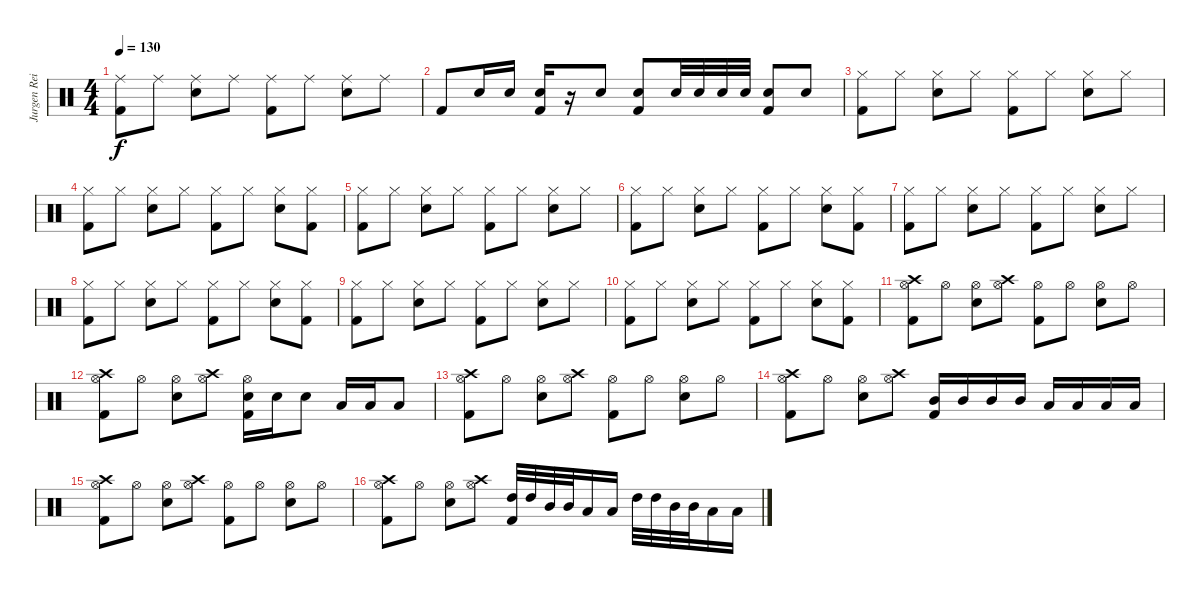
\track ("Jurgen Reil" "Jurgen Rei") {instrument percussion}
\staff {score}
\articulation defaults
\ts (4 4)
\tempo 130
\clef neutral
\ks c
("Kick (hit) 2" "Ride (middle)").8{dy f} "Ride (middle)".8 ("Snare (hit) 2" "Ride (middle)").8 "Ride (middle)".8 ("Kick (hit) 2" "Ride (middle)").8 "Ride (middle)".8 ("Snare (hit) 2" "Ride (middle)").8 "Ride (middle)".8 |
"Kick (hit) 2".8 "Snare (hit) 2".16 "Snare (hit) 2".16 ("Snare (hit) 2" "Kick (hit) 2").16 r.16 "Snare (hit) 2".8 ("Snare (hit) 2" "Kick (hit) 2").8 "Snare (hit) 2".32 "Snare (hit) 2".32 "Snare (hit) 2".32 "Snare (hit) 2".32 ("Snare (hit) 2" "Kick (hit) 2").8 "Snare (hit) 2".8 |
("Kick (hit) 2" "Hi-Hat (closed)").8 "Hi-Hat (closed)".8 ("Snare (hit) 2" "Hi-Hat (closed)").8 "Hi-Hat (closed)".8 ("Kick (hit) 2" "Hi-Hat (closed)").8 "Hi-Hat (closed)".8 ("Snare (hit) 2" "Hi-Hat (closed)").8 "Hi-Hat (closed)".8 |
("Kick (hit) 2" "Hi-Hat (closed)").8 "Hi-Hat (closed)".8 ("Snare (hit) 2" "Hi-Hat (closed)").8 "Hi-Hat (closed)".8 ("Kick (hit) 2" "Hi-Hat (closed)").8 "Hi-Hat (closed)".8 ("Snare (hit) 2" "Hi-Hat (closed)").8 ("Kick (hit) 2" "Hi-Hat (closed)").8 |
("Kick (hit) 2" "Hi-Hat (closed)").8 "Hi-Hat (closed)".8 ("Snare (hit) 2" "Hi-Hat (closed)").8 "Hi-Hat (closed)".8 ("Kick (hit) 2" "Hi-Hat (closed)").8 "Hi-Hat (closed)".8 ("Snare (hit) 2" "Hi-Hat (closed)").8 "Hi-Hat (closed)".8 |
("Kick (hit) 2" "Hi-Hat (closed)").8 "Hi-Hat (closed)".8 ("Snare (hit) 2" "Hi-Hat (closed)").8 "Hi-Hat (closed)".8 ("Kick (hit) 2" "Hi-Hat (closed)").8 "Hi-Hat (closed)".8 ("Snare (hit) 2" "Hi-Hat (closed)").8 ("Kick (hit) 2" "Hi-Hat (closed)").8 |
("Kick (hit) 2" "Hi-Hat (closed)").8 "Hi-Hat (closed)".8 ("Snare (hit) 2" "Hi-Hat (closed)").8 "Hi-Hat (closed)".8 ("Kick (hit) 2" "Hi-Hat (closed)").8 "Hi-Hat (closed)".8 ("Snare (hit) 2" "Hi-Hat (closed)").8 "Hi-Hat (closed)".8 |
("Kick (hit) 2" "Hi-Hat (closed)").8 "Hi-Hat (closed)".8 ("Snare (hit) 2" "Hi-Hat (closed)").8 "Hi-Hat (closed)".8 ("Kick (hit) 2" "Hi-Hat (closed)").8 "Hi-Hat (closed)".8 ("Snare (hit) 2" "Hi-Hat (closed)").8 ("Kick (hit) 2" "Hi-Hat (closed)").8 |
("Kick (hit) 2" "Hi-Hat (closed)").8 "Hi-Hat (closed)".8 ("Snare (hit) 2" "Hi-Hat (closed)").8 "Hi-Hat (closed)".8 ("Kick (hit) 2" "Hi-Hat (closed)").8 "Hi-Hat (closed)".8 ("Snare (hit) 2" "Hi-Hat (closed)").8 "Hi-Hat (closed)".8 |
("Kick (hit) 2" "Hi-Hat (closed)").8 "Hi-Hat (closed)".8 ("Snare (hit) 2" "Hi-Hat (closed)").8 "Hi-Hat (closed)".8 ("Kick (hit) 2" "Hi-Hat (closed)").8 "Hi-Hat (closed)".8 ("Snare (hit) 2" "Hi-Hat (closed)").8 ("Kick (hit) 2" "Hi-Hat (closed)").8 |
("Kick (hit) 2" "Crash high (hit)" "Hi-Hat (open)").8 "Hi-Hat (open)".8 ("Snare (hit) 2" "Hi-Hat (open)").8 ("Crash high (hit)" "Hi-Hat (open)").8 ("Kick (hit) 2" "Hi-Hat (open)").8 "Hi-Hat (open)".8 ("Snare (hit) 2" "Hi-Hat (open)").8 "Hi-Hat (open)".8 |
("Kick (hit) 2" "Crash high (hit)" "Hi-Hat (open)").8 "Hi-Hat (open)".8 ("Snare (hit) 2" "Hi-Hat (open)").8 ("Crash high (hit)" "Hi-Hat (open)").8 ("Kick (hit) 2" "Snare (hit) 2" "Hi-Hat (open)").16 "Snare (hit) 2".16 "Snare (hit) 2".8 "Low Tom (hit)".16 "Low Tom (hit)".16 "Low Tom (hit)".8 |
("Kick (hit) 2" "Crash high (hit)" "Hi-Hat (open)").8 "Hi-Hat (open)".8 ("Snare (hit) 2" "Hi-Hat (open)").8 ("Crash high (hit)" "Hi-Hat (open)").8 ("Kick (hit) 2" "Hi-Hat (open)").8 "Hi-Hat (open)".8 ("Snare (hit) 2" "Hi-Hat (open)").8 "Hi-Hat (open)".8 |
("Kick (hit) 2" "Crash high (hit)" "Hi-Hat (open)").8 "Hi-Hat (open)".8 ("Snare (hit) 2" "Hi-Hat (open)").8 ("Crash high (hit)" "Hi-Hat (open)").8 ("Kick (hit) 2" "Mid Tom (hit)").16 "Mid Tom (hit)".16 "Mid Tom (hit)".16 "Mid Tom (hit)".16 "Low Tom (hit)".16 "Low Tom (hit)".16 "Low Tom (hit)".16 "Low Tom (hit)".16 |
("Kick (hit) 2" "Crash high (hit)" "Hi-Hat (open)").8 "Hi-Hat (open)".8 ("Snare (hit) 2" "Hi-Hat (open)").8 ("Crash high (hit)" "Hi-Hat (open)").8 ("Kick (hit) 2" "Hi-Hat (open)").8 "Hi-Hat (open)".8 ("Snare (hit) 2" "Hi-Hat (open)").8 "Hi-Hat (open)".8 |
("Kick (hit) 2" "Crash high (hit)" "Hi-Hat (open)").8 "Hi-Hat (open)".8 ("Snare (hit) 2" "Hi-Hat (open)").8 ("Crash high (hit)" "Hi-Hat (open)").8 ("Kick (hit) 2" "High Tom (hit)").32 "High Tom (hit)".32 "Mid Tom (hit)".32 "Mid Tom (hit)".32 "Low Tom (hit)".16 "Low Tom (hit)".16 "High Tom (hit)".32 "High Tom (hit)".32 "Mid Tom (hit)".32 "Mid Tom (hit)".32 "Low Tom (hit)".16 "Low Tom (hit)".16
